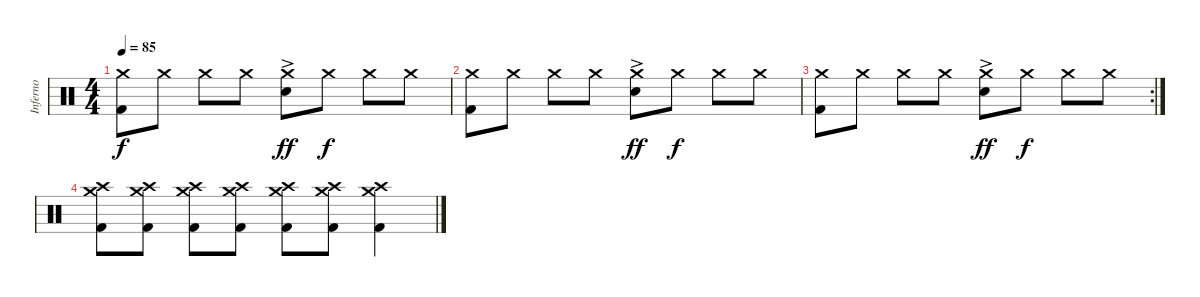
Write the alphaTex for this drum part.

\track ("Inferno" "Inferno") {instrument percussion}
\staff {score}
\articulation defaults
\ts (4 4)
\tempo 85
\clef neutral
\ks c
("Kick (hit) 2" "Crash medium (hit)").8{dy f} "Crash medium (hit)".8 "Crash medium (hit)".8 "Crash medium (hit)".8 ("Electric Snare (hit)"{ac} "Crash medium (hit)").8{dy ff} "Crash medium (hit)".8{dy f} "Crash medium (hit)".8 "Crash medium (hit)".8 |
("Kick (hit) 2" "Crash medium (hit)").8 "Crash medium (hit)".8 "Crash medium (hit)".8 "Crash medium (hit)".8 ("Electric Snare (hit)"{ac} "Crash medium (hit)").8{dy ff} "Crash medium (hit)".8{dy f} "Crash medium (hit)".8 "Crash medium (hit)".8 |
\rc 2
("Kick (hit) 2" "Crash medium (hit)").8 "Crash medium (hit)".8 "Crash medium (hit)".8 "Crash medium (hit)".8 ("Electric Snare (hit)"{ac} "Crash medium (hit)").8{dy ff} "Crash medium (hit)".8{dy f} "Crash medium (hit)".8 "Crash medium (hit)".8 |
("Kick (hit) 2" "Crash high (hit)" "Crash medium (hit)").8 ("Kick (hit) 2" "Crash high (hit)" "Crash medium (hit)").8 ("Kick (hit) 2" "Crash high (hit)" "Crash medium (hit)").8 ("Kick (hit) 2" "Crash high (hit)" "Crash medium (hit)").8 ("Kick (hit) 2" "Crash high (hit)" "Crash medium (hit)").8 ("Kick (hit) 2" "Crash high (hit)" "Crash medium (hit)").8 ("Kick (hit) 2" "Crash high (hit)" "Crash medium (hit)").4
